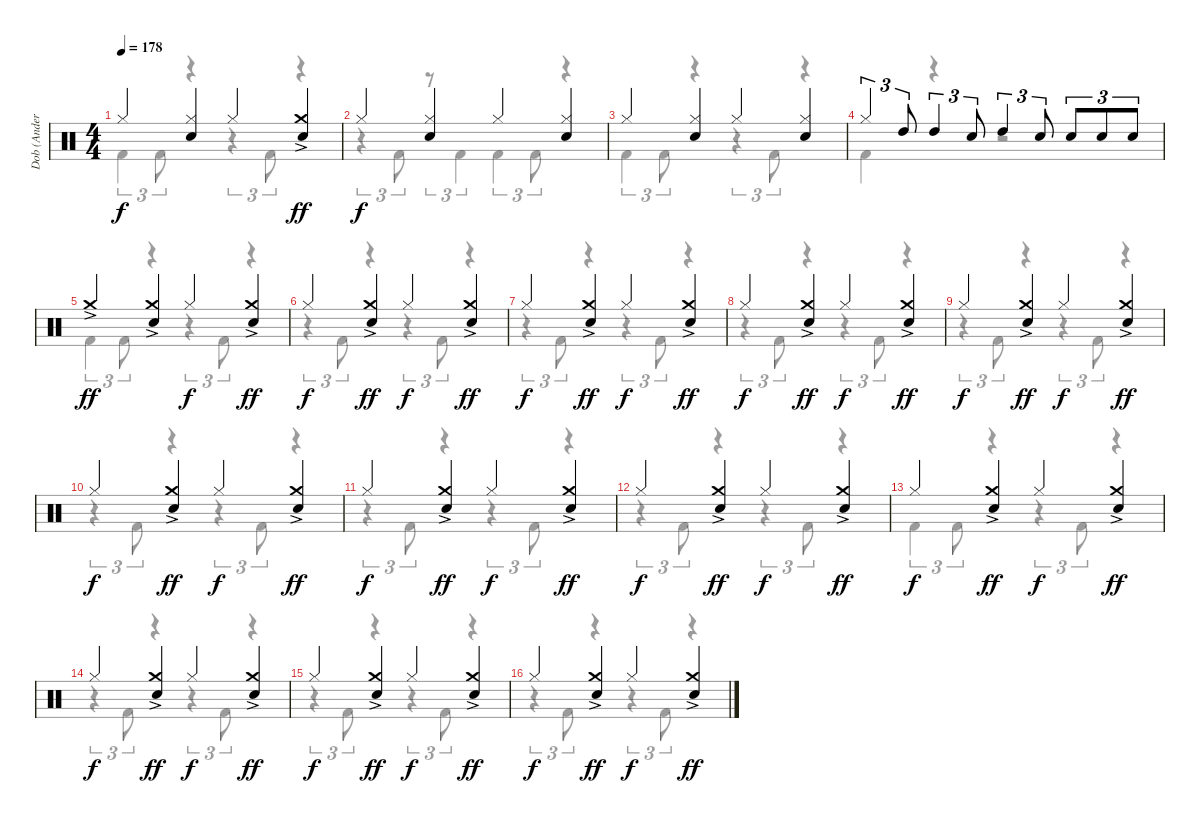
\track ("Dob (Anders Johansson)" "Dob (Ander") {instrument percussion}
\staff {score}
\articulation defaults
\voice
\ts (4 4)
\tempo 178
\clef neutral
\ks c "Hi-Hat (closed)".4{dy f}
("Hi-Hat (closed)" "Electric Snare (hit)").4 "Hi-Hat (closed)".4 ("Crash medium (hit)"{ac} "Electric Snare (hit)").4{dy ff} |
"Hi-Hat (closed)".4{dy f} ("Hi-Hat (closed)" "Electric Snare (hit)").4 "Hi-Hat (closed)".4 ("Hi-Hat (closed)" "Electric Snare (hit)").4 |
"Hi-Hat (closed)".4 ("Hi-Hat (closed)" "Electric Snare (hit)").4 "Hi-Hat (closed)".4 ("Hi-Hat (closed)" "Electric Snare (hit)").4 |
"Hi-Hat (closed)".4{tu (3 2)} "High Tom (hit)".8{tu (3 2)} "High Tom (hit)".4{tu (3 2)} "Electric Snare (hit)".8{tu (3 2)} "High Tom (hit)".4{tu (3 2)} "Electric Snare (hit)".8{tu (3 2)} "Electric Snare (hit)".8{tu (3 2)} "Electric Snare (hit)".8{tu (3 2)} "Electric Snare (hit)".8{tu (3 2)} |
"Crash medium (hit)"{ac}.4{dy ff} ("Crash medium (hit)"{ac} "Electric Snare (hit)").4 "Hi-Hat (closed)".4{dy f} ("Crash medium (hit)"{ac} "Electric Snare (hit)").4{dy ff} |
"Hi-Hat (closed)".4{dy f} ("Crash medium (hit)"{ac} "Electric Snare (hit)").4{dy ff} "Hi-Hat (closed)".4{dy f} ("Crash medium (hit)"{ac} "Electric Snare (hit)").4{dy ff} |
"Hi-Hat (closed)".4{dy f} ("Crash medium (hit)"{ac} "Electric Snare (hit)").4{dy ff} "Hi-Hat (closed)".4{dy f} ("Crash medium (hit)"{ac} "Electric Snare (hit)").4{dy ff} |
"Hi-Hat (closed)".4{dy f} ("Crash medium (hit)"{ac} "Electric Snare (hit)").4{dy ff} "Hi-Hat (closed)".4{dy f} ("Crash medium (hit)"{ac} "Electric Snare (hit)").4{dy ff} |
"Hi-Hat (closed)".4{dy f} ("Crash medium (hit)"{ac} "Electric Snare (hit)").4{dy ff} "Hi-Hat (closed)".4{dy f} ("Crash medium (hit)"{ac} "Electric Snare (hit)").4{dy ff} |
"Hi-Hat (closed)".4{dy f} ("Crash medium (hit)"{ac} "Electric Snare (hit)").4{dy ff} "Hi-Hat (closed)".4{dy f} ("Crash medium (hit)"{ac} "Electric Snare (hit)").4{dy ff} |
"Hi-Hat (closed)".4{dy f} ("Crash medium (hit)"{ac} "Electric Snare (hit)").4{dy ff} "Hi-Hat (closed)".4{dy f} ("Crash medium (hit)"{ac} "Electric Snare (hit)").4{dy ff} |
"Hi-Hat (closed)".4{dy f} ("Crash medium (hit)"{ac} "Electric Snare (hit)").4{dy ff} "Hi-Hat (closed)".4{dy f} ("Crash medium (hit)"{ac} "Electric Snare (hit)").4{dy ff} |
"Hi-Hat (closed)".4{dy f} ("Crash medium (hit)"{ac} "Electric Snare (hit)").4{dy ff} "Hi-Hat (closed)".4{dy f} ("Crash medium (hit)"{ac} "Electric Snare (hit)").4{dy ff} |
"Hi-Hat (closed)".4{dy f} ("Crash medium (hit)"{ac} "Electric Snare (hit)").4{dy ff} "Hi-Hat (closed)".4{dy f} ("Crash medium (hit)"{ac} "Electric Snare (hit)").4{dy ff} |
"Hi-Hat (closed)".4{dy f} ("Crash medium (hit)"{ac} "Electric Snare (hit)").4{dy ff} "Hi-Hat (closed)".4{dy f} ("Crash medium (hit)"{ac} "Electric Snare (hit)").4{dy ff} |
"Hi-Hat (closed)".4{dy f} ("Crash medium (hit)"{ac} "Electric Snare (hit)").4{dy ff} "Hi-Hat (closed)".4{dy f} ("Crash medium (hit)"{ac} "Electric Snare (hit)").4{dy ff}
\voice
\clef neutral
\ottava regular
\simile none
\ks c "Kick (hit) 2".4{tu (3 2) dy f} "Kick (hit) 2".8{tu (3 2)}
r.4 r.4{tu (3 2)} "Kick (hit) 2".8{tu (3 2)} r.4 |
r.4{tu (3 2)} "Kick (hit) 2".8{tu (3 2)} r.8{tu (3 2)} "Kick (hit) 2".4{tu (3 2)} "Kick (hit) 2".4{tu (3 2)} "Kick (hit) 2".8{tu (3 2)} r.4 |
"Kick (hit) 2".4{tu (3 2)} "Kick (hit) 2".8{tu (3 2)} r.4 r.4{tu (3 2)} "Kick (hit) 2".8{tu (3 2)} r.4 |
"Kick (hit) 2".4 r.4 r.2 |
"Kick (hit) 2".4{tu (3 2)} "Kick (hit) 2".8{tu (3 2)} r.4 r.4{tu (3 2)} "Kick (hit) 2".8{tu (3 2)} r.4 |
r.4{tu (3 2)} "Kick (hit) 2".8{tu (3 2)} r.4 r.4{tu (3 2)} "Kick (hit) 2".8{tu (3 2)} r.4 |
r.4{tu (3 2)} "Kick (hit) 2".8{tu (3 2)} r.4 r.4{tu (3 2)} "Kick (hit) 2".8{tu (3 2)} r.4 |
r.4{tu (3 2)} "Kick (hit) 2".8{tu (3 2)} r.4 r.4{tu (3 2)} "Kick (hit) 2".8{tu (3 2)} r.4 |
r.4{tu (3 2)} "Kick (hit) 2".8{tu (3 2)} r.4 r.4{tu (3 2)} "Kick (hit) 2".8{tu (3 2)} r.4 |
r.4{tu (3 2)} "Kick (hit) 2".8{tu (3 2)} r.4 r.4{tu (3 2)} "Kick (hit) 2".8{tu (3 2)} r.4 |
r.4{tu (3 2)} "Kick (hit) 2".8{tu (3 2)} r.4 r.4{tu (3 2)} "Kick (hit) 2".8{tu (3 2)} r.4 |
r.4{tu (3 2)} "Kick (hit) 2".8{tu (3 2)} r.4 r.4{tu (3 2)} "Kick (hit) 2".8{tu (3 2)} r.4 |
"Kick (hit) 2".4{tu (3 2)} "Kick (hit) 2".8{tu (3 2)} r.4 r.4{tu (3 2)} "Kick (hit) 2".8{tu (3 2)} r.4 |
r.4{tu (3 2)} "Kick (hit) 2".8{tu (3 2)} r.4 r.4{tu (3 2)} "Kick (hit) 2".8{tu (3 2)} r.4 |
r.4{tu (3 2)} "Kick (hit) 2".8{tu (3 2)} r.4 r.4{tu (3 2)} "Kick (hit) 2".8{tu (3 2)} r.4 |
r.4{tu (3 2)} "Kick (hit) 2".8{tu (3 2)} r.4 r.4{tu (3 2)} "Kick (hit) 2".8{tu (3 2)} r.4
